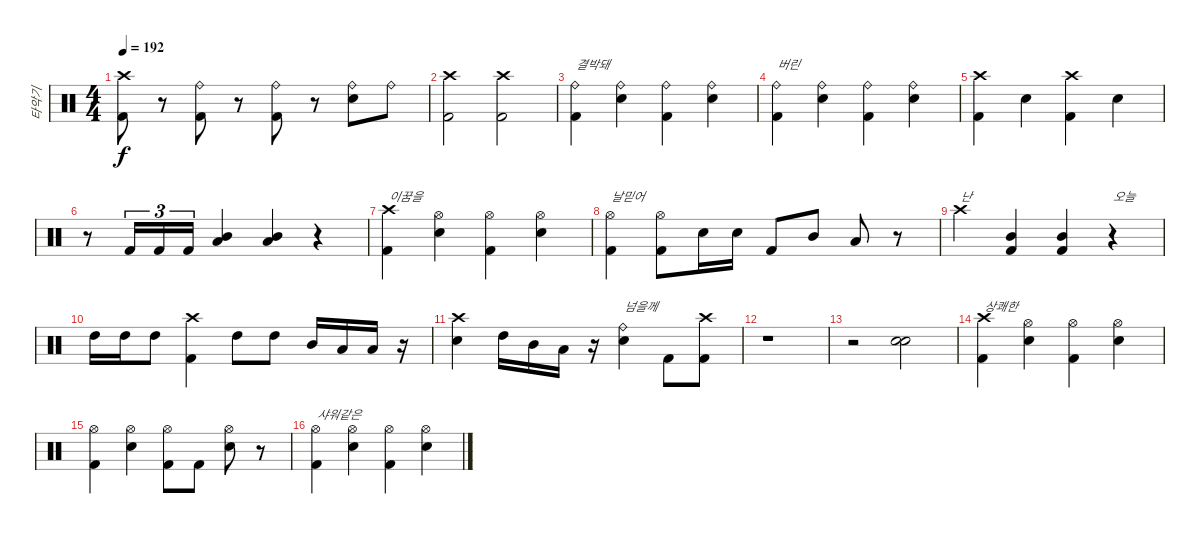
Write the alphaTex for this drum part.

\track ("타악기" "타악기") {instrument percussion}
\staff {score}
\articulation defaults
\ts (4 4)
\tempo 192
\clef neutral
\ks c
("Crash high (hit)" "Kick (hit) 2").8{dy f} r.8 ("Ride (bell)" "Kick (hit) 2").8 r.8 ("Ride (bell)" "Kick (hit) 2").8 r.8 ("Ride (bell)" "Snare (hit) 2").8 "Ride (bell)".8 |
("Crash high (hit)" "Kick (hit) 2").2 ("Crash high (hit)" "Kick (hit) 2").2 |
("Ride (bell)" "Kick (hit) 2").4{txt "결박돼"} ("Ride (bell)" "Snare (hit) 2").4 ("Ride (bell)" "Kick (hit) 2").4 ("Ride (bell)" "Snare (hit) 2").4 |
("Ride (bell)" "Kick (hit) 2").4{txt "버린"} ("Ride (bell)" "Snare (hit) 2").4 ("Ride (bell)" "Kick (hit) 2").4 ("Ride (bell)" "Snare (hit) 2").4 |
("Crash high (hit)" "Kick (hit) 2").4 "Snare (hit) 2".4 ("Crash high (hit)" "Kick (hit) 2").4 "Snare (hit) 2".4 |
r.8 "Kick (hit) 2".16{tu (3 2)} "Kick (hit) 2".16{tu (3 2)} "Kick (hit) 2".16{tu (3 2)} ("Mid Tom (hit)" "Low Tom (hit)").4{bu 480} ("Mid Tom (hit)" "Low Tom (hit)").4{bu 480} r.4 |
("Crash high (hit)" "Kick (hit) 2").4{txt "이꿈을"} ("Hi-Hat (open)" "Snare (hit) 2").4 ("Hi-Hat (open)" "Kick (hit) 2").4 ("Hi-Hat (open)" "Snare (hit) 2").4 |
("Hi-Hat (open)" "Kick (hit) 2").4{txt "날믿어"} ("Hi-Hat (open)" "Kick (hit) 2").8 "Snare (hit) 2".16 "Snare (hit) 2".16 "Kick (hit) 2".8 "Mid Tom (hit)".8 "Low Tom (hit)".8 r.8 |
"Crash high (hit)".4{txt "난"} ("Mid Tom (hit)" "Kick (hit) 2").4{bd 240} ("Mid Tom (hit)" "Kick (hit) 2").4{bd 240} r.4{txt "오늘"} |
"High Tom (hit)".16 "High Tom (hit)".16 "High Tom (hit)".8 ("Crash high (hit)" "Kick (hit) 2").4 "High Tom (hit)".8 "High Tom (hit)".8 "Mid Tom (hit)".16 "Low Tom (hit)".16 "Low Tom (hit)".16 r.16 |
("Crash high (hit)" "Snare (hit) 2").4 "High Tom (hit)".16 "Mid Tom (hit)".16 "Low Tom (hit)".16 r.16 ("Ride (bell)" "Snare (hit) 2").4{txt "넘을께"} "Kick (hit) 2".8 ("Crash high (hit)" "Kick (hit) 2").8 |
r.1 |
r.2 ("Snare (hit) 2" "Snare (hit) 2").2{bu 480} |
("Crash high (hit)" "Kick (hit) 2").4{txt "상쾌한"} ("Hi-Hat (open)" "Snare (hit) 2").4 ("Hi-Hat (open)" "Kick (hit) 2").4 ("Hi-Hat (open)" "Snare (hit) 2").4 |
("Hi-Hat (open)" "Kick (hit) 2").4 ("Hi-Hat (open)" "Snare (hit) 2").4 ("Hi-Hat (open)" "Kick (hit) 2").8 "Kick (hit) 2".8 ("Hi-Hat (open)" "Snare (hit) 2").8 r.8 |
("Hi-Hat (open)" "Kick (hit) 2").4{txt "샤워같은"} ("Hi-Hat (open)" "Snare (hit) 2").4 ("Hi-Hat (open)" "Kick (hit) 2").4 ("Hi-Hat (open)" "Snare (hit) 2").4
